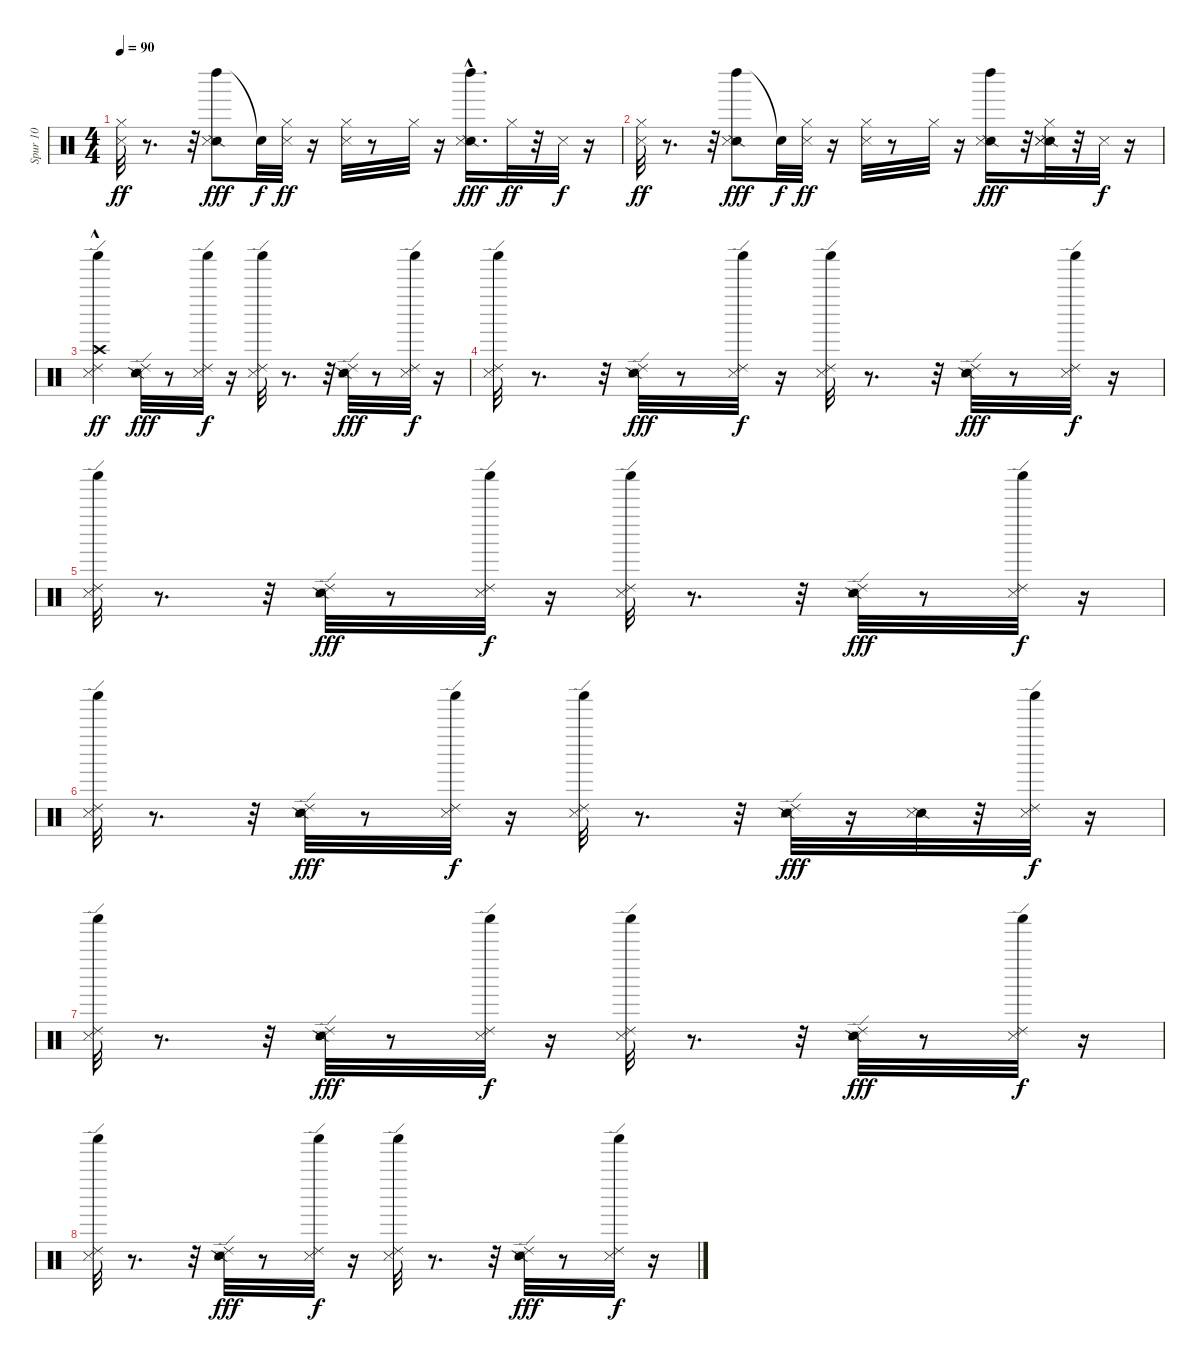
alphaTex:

\track ("Spur 10" "Spur 10") {instrument percussion}
\staff {score}
\articulation defaults
\ts (4 4)
\tempo 90
\clef neutral
\ks c
("Hi-Hat (closed)" "Metronome (hit)").32{dy ff} r.8{d} r.32 ("Left Maraca (hit)" "Snare (side stick) 2" "Snare (side stick) 3").8{dy fff} "Snare (hit)"{t}.32{dy f} ("Hi-Hat (closed)" "Metronome (hit)").32{dy ff} r.16 ("Hi-Hat (closed)" "Metronome (hit)").32 r.8 "Hi-Hat (closed)".32 r.16 ("Left Maraca (hit)"{hac} "Snare (side stick) 2" "Snare (side stick) 3").16{d dy fff} "Hi-Hat (closed)".32{dy ff} r.32 "Metronome (hit)".32{dy f} r.16 |
("Hi-Hat (closed)" "Metronome (hit)").32{dy ff} r.8{d} r.32 ("Left Maraca (hit)" "Snare (side stick) 2" "Snare (side stick) 3").8{dy fff} "Snare (hit)"{t}.32{dy f} ("Hi-Hat (closed)" "Metronome (hit)").32{dy ff} r.16 ("Hi-Hat (closed)" "Metronome (hit)").32 r.8 "Hi-Hat (closed)".32 r.16 ("Left Maraca (hit)" "Snare (side stick) 2" "Snare (side stick) 3").16{dy fff} r.32 ("Hi-Hat (closed)" "Snare (side stick) 2" "Metronome (hit)" "Snare (side stick) 3").32 r.32 "Metronome (hit)".32{dy f} r.16 |
("Ride (edge) 2" "Shaker (hit)" "Metronome (hit)" "Crash high (hit)"{hac}).4{dy ff} ("Ride (edge) 2" "Snare (side stick) 2" "Snare (side stick) 3").32{dy fff} r.8 ("Ride (edge) 2" "Shaker (hit)" "Metronome (hit)").32{dy f} r.16 ("Ride (edge) 2" "Shaker (hit)" "Metronome (hit)").32 r.8{d} r.32 ("Ride (edge) 2" "Snare (side stick) 2" "Snare (side stick) 3").32{dy fff} r.8 ("Ride (edge) 2" "Shaker (hit)" "Metronome (hit)").32{dy f} r.16 |
("Ride (edge) 2" "Shaker (hit)" "Metronome (hit)").32 r.8{d} r.32 ("Ride (edge) 2" "Snare (side stick) 2" "Snare (side stick) 3").32{dy fff} r.8 ("Shaker (hit)" "Ride (edge) 2" "Metronome (hit)").32{dy f} r.16 ("Ride (edge) 2" "Shaker (hit)" "Metronome (hit)").32 r.8{d} r.32 ("Ride (edge) 2" "Snare (side stick) 2" "Snare (side stick) 3").32{dy fff} r.8 ("Ride (edge) 2" "Shaker (hit)" "Metronome (hit)").32{dy f} r.16 |
("Shaker (hit)" "Ride (edge) 2" "Metronome (hit)").32 r.8{d} r.32 ("Ride (edge) 2" "Snare (side stick) 2" "Snare (side stick) 3").32{dy fff} r.8 ("Ride (edge) 2" "Shaker (hit)" "Metronome (hit)").32{dy f} r.16 ("Ride (edge) 2" "Shaker (hit)" "Metronome (hit)").32 r.8{d} r.32 ("Ride (edge) 2" "Snare (side stick) 2" "Snare (side stick) 3").32{dy fff} r.8 ("Shaker (hit)" "Ride (edge) 2" "Metronome (hit)").32{dy f} r.16 |
("Ride (edge) 2" "Shaker (hit)" "Metronome (hit)").32 r.8{d} r.32 ("Ride (edge) 2" "Snare (side stick) 2" "Snare (side stick) 3").32{dy fff} r.8 ("Ride (edge) 2" "Shaker (hit)" "Metronome (hit)").32{dy f} r.16 ("Ride (edge) 2" "Shaker (hit)" "Metronome (hit)").32 r.8{d} r.32 ("Ride (edge) 2" "Snare (side stick) 2" "Metronome (hit)" "Snare (side stick) 3").32{dy fff} r.16 ("Snare (side stick) 2" "Snare (side stick) 3").32 r.32 ("Ride (edge) 2" "Shaker (hit)" "Metronome (hit)").32{dy f} r.16 |
("Ride (edge) 2" "Shaker (hit)" "Metronome (hit)").32 r.8{d} r.32 ("Ride (edge) 2" "Snare (side stick) 2" "Snare (side stick) 3").32{dy fff} r.8 ("Shaker (hit)" "Ride (edge) 2" "Metronome (hit)").32{dy f} r.16 ("Ride (edge) 2" "Shaker (hit)" "Metronome (hit)").32 r.8{d} r.32 ("Ride (edge) 2" "Snare (side stick) 2" "Snare (side stick) 3").32{dy fff} r.8 ("Ride (edge) 2" "Shaker (hit)" "Metronome (hit)").32{dy f} r.16 |
("Ride (edge) 2" "Shaker (hit)" "Metronome (hit)").32 r.8{d} r.32 ("Ride (edge) 2" "Snare (side stick) 2" "Snare (side stick) 3").32{dy fff} r.8 ("Ride (edge) 2" "Shaker (hit)" "Metronome (hit)").32{dy f} r.16 ("Ride (edge) 2" "Shaker (hit)" "Metronome (hit)").32 r.8{d} r.32 ("Ride (edge) 2" "Snare (side stick) 2" "Snare (side stick) 3").32{dy fff} r.8 ("Shaker (hit)" "Ride (edge) 2" "Metronome (hit)").32{dy f} r.16
